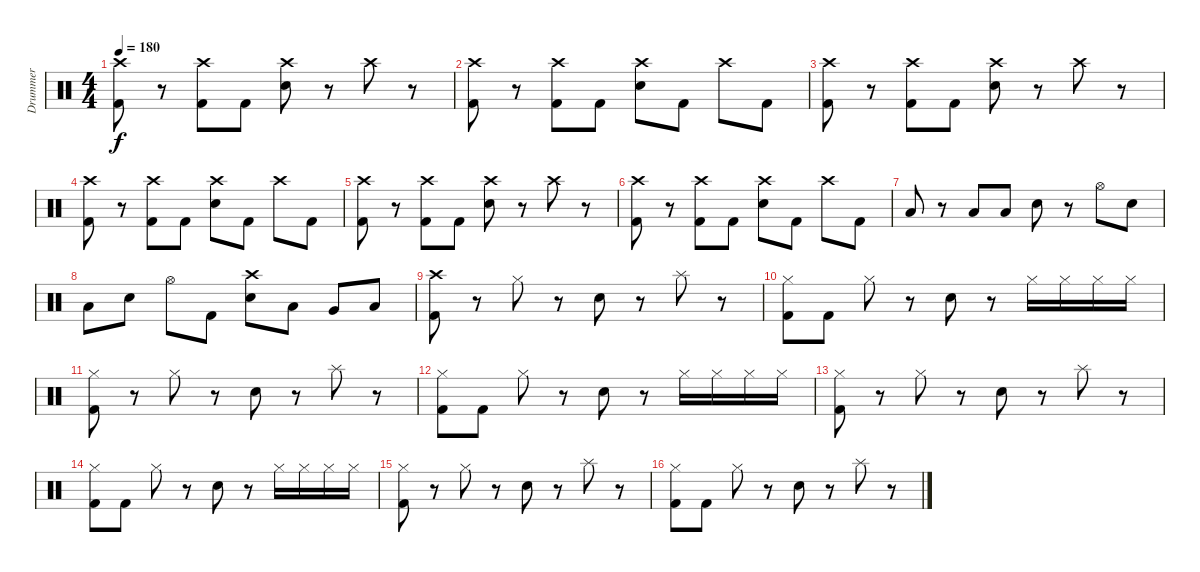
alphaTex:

\track ("Drummer" "Drummer") {instrument percussion}
\staff {score}
\articulation defaults
\ts (4 4)
\tempo 180
\clef neutral
\ks c
("Crash high (hit)" "Kick (hit) 2").8{dy f} r.8 ("Crash high (hit)" "Kick (hit) 2").8 "Kick (hit) 2".8 ("Crash high (hit)" "Electric Snare (hit)").8 r.8 "Crash high (hit)".8 r.8 |
("Crash high (hit)" "Kick (hit) 2").8 r.8 ("Crash high (hit)" "Kick (hit) 2").8 "Kick (hit) 2".8 ("Crash high (hit)" "Electric Snare (hit)").8 "Kick (hit) 2".8 "Crash high (hit)".8 "Kick (hit) 2".8 |
("Crash high (hit)" "Kick (hit) 2").8 r.8 ("Crash high (hit)" "Kick (hit) 2").8 "Kick (hit) 2".8 ("Crash high (hit)" "Electric Snare (hit)").8 r.8 "Crash high (hit)".8 r.8 |
("Crash high (hit)" "Kick (hit) 2").8 r.8 ("Crash high (hit)" "Kick (hit) 2").8 "Kick (hit) 2".8 ("Crash high (hit)" "Electric Snare (hit)").8 "Kick (hit) 2".8 "Crash high (hit)".8 "Kick (hit) 2".8 |
("Crash high (hit)" "Kick (hit) 2").8 r.8 ("Crash high (hit)" "Kick (hit) 2").8 "Kick (hit) 2".8 ("Crash high (hit)" "Electric Snare (hit)").8 r.8 "Crash high (hit)".8 r.8 |
("Crash high (hit)" "Kick (hit) 2").8 r.8 ("Crash high (hit)" "Kick (hit) 2").8 "Kick (hit) 2".8 ("Crash high (hit)" "Electric Snare (hit)").8 "Kick (hit) 2".8 "Crash high (hit)".8 "Kick (hit) 2".8 |
"Low Floor Tom (hit)".8 r.8 "Low Floor Tom (hit)".8 "Low Floor Tom (hit)".8 "Electric Snare (hit)".8 r.8 "Hi-Hat (open)".8 "Electric Snare (hit)".8 |
"Low Tom (hit)".8 "Electric Snare (hit)".8 "Hi-Hat (open)".8 "Kick (hit) 2".8 ("Crash high (hit)" "Electric Snare (hit)").8 "Low Tom (hit)".8 "Very Low Tom (hit)".8 "Low Floor Tom (hit)".8 |
("Crash high (hit)" "Kick (hit) 2").8 r.8 "Hi-Hat (closed)".8 r.8 "Electric Snare (hit)".8 r.8 "Splash (hit)".8 r.8 |
("Hi-Hat (closed)" "Kick (hit) 2").8 "Kick (hit) 2".8 "Hi-Hat (closed)".8 r.8 "Electric Snare (hit)".8 r.8 "Hi-Hat (closed)".16 "Hi-Hat (closed)".16 "Hi-Hat (closed)".16 "Hi-Hat (closed)".16 |
("Hi-Hat (closed)" "Kick (hit) 2").8 r.8 "Hi-Hat (closed)".8 r.8 "Electric Snare (hit)".8 r.8 "Splash (hit)".8 r.8 |
("Hi-Hat (closed)" "Kick (hit) 2").8 "Kick (hit) 2".8 "Hi-Hat (closed)".8 r.8 "Electric Snare (hit)".8 r.8 "Hi-Hat (closed)".16 "Hi-Hat (closed)".16 "Hi-Hat (closed)".16 "Hi-Hat (closed)".16 |
("Hi-Hat (closed)" "Kick (hit) 2").8 r.8 "Hi-Hat (closed)".8 r.8 "Electric Snare (hit)".8 r.8 "Splash (hit)".8 r.8 |
("Hi-Hat (closed)" "Kick (hit) 2").8 "Kick (hit) 2".8 "Hi-Hat (closed)".8 r.8 "Electric Snare (hit)".8 r.8 "Hi-Hat (closed)".16 "Hi-Hat (closed)".16 "Hi-Hat (closed)".16 "Hi-Hat (closed)".16 |
("Hi-Hat (closed)" "Kick (hit) 2").8 r.8 "Hi-Hat (closed)".8 r.8 "Electric Snare (hit)".8 r.8 "Splash (hit)".8 r.8 |
("Hi-Hat (closed)" "Kick (hit) 2").8 "Kick (hit) 2".8 "Hi-Hat (closed)".8 r.8 "Electric Snare (hit)".8 r.8 "Splash (hit)".8 r.8
